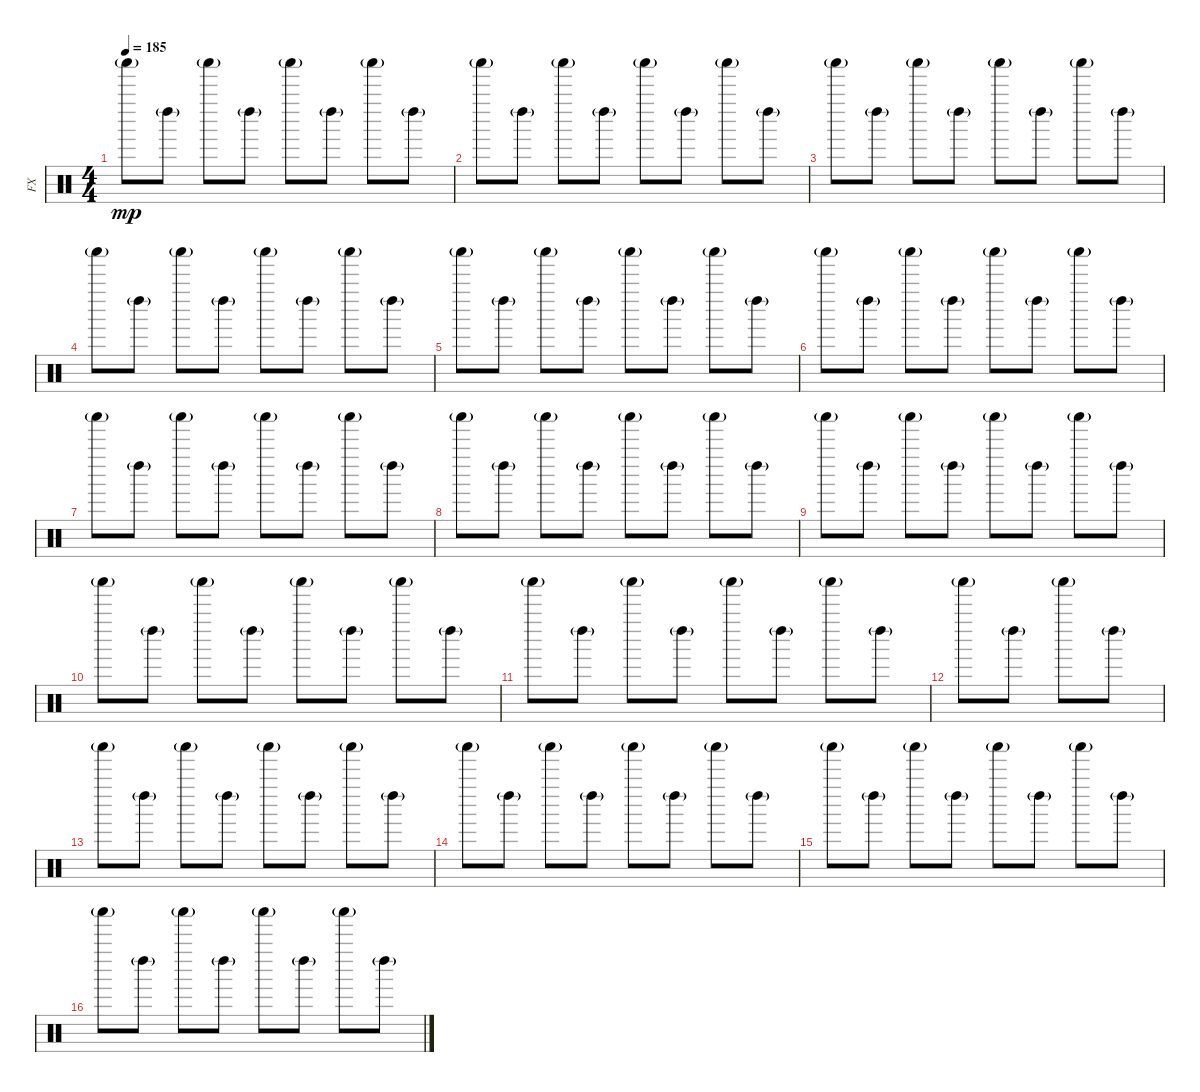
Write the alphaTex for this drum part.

\track ("FX" "FX") {instrument percussion}
\staff {score}
\articulation defaults
\ts (4 4)
\tempo 185
\clef neutral
\ks c "Shaker (hit)"{g}.8{dy mp} "Left Maraca (hit)"{g}.8 "Shaker (hit)"{g}.8 "Left Maraca (hit)"{g}.8 "Shaker (hit)"{g}.8 "Left Maraca (hit)"{g}.8 "Shaker (hit)"{g}.8 "Left Maraca (hit)"{g}.8
|
"Shaker (hit)"{g}.8 "Left Maraca (hit)"{g}.8 "Shaker (hit)"{g}.8 "Left Maraca (hit)"{g}.8 "Shaker (hit)"{g}.8 "Left Maraca (hit)"{g}.8 "Shaker (hit)"{g}.8 "Left Maraca (hit)"{g}.8 |
"Shaker (hit)"{g}.8 "Left Maraca (hit)"{g}.8 "Shaker (hit)"{g}.8 "Left Maraca (hit)"{g}.8 "Shaker (hit)"{g}.8 "Left Maraca (hit)"{g}.8 "Shaker (hit)"{g}.8 "Left Maraca (hit)"{g}.8 |
"Shaker (hit)"{g}.8 "Left Maraca (hit)"{g}.8 "Shaker (hit)"{g}.8 "Left Maraca (hit)"{g}.8 "Shaker (hit)"{g}.8 "Left Maraca (hit)"{g}.8 "Shaker (hit)"{g}.8 "Left Maraca (hit)"{g}.8 |
"Shaker (hit)"{g}.8 "Left Maraca (hit)"{g}.8 "Shaker (hit)"{g}.8 "Left Maraca (hit)"{g}.8 "Shaker (hit)"{g}.8 "Left Maraca (hit)"{g}.8 "Shaker (hit)"{g}.8 "Left Maraca (hit)"{g}.8 |
"Shaker (hit)"{g}.8 "Left Maraca (hit)"{g}.8 "Shaker (hit)"{g}.8 "Left Maraca (hit)"{g}.8 "Shaker (hit)"{g}.8 "Left Maraca (hit)"{g}.8 "Shaker (hit)"{g}.8 "Left Maraca (hit)"{g}.8 |
"Shaker (hit)"{g}.8 "Left Maraca (hit)"{g}.8 "Shaker (hit)"{g}.8 "Left Maraca (hit)"{g}.8 "Shaker (hit)"{g}.8 "Left Maraca (hit)"{g}.8 "Shaker (hit)"{g}.8 "Left Maraca (hit)"{g}.8 |
"Shaker (hit)"{g}.8 "Left Maraca (hit)"{g}.8 "Shaker (hit)"{g}.8 "Left Maraca (hit)"{g}.8 "Shaker (hit)"{g}.8 "Left Maraca (hit)"{g}.8 "Shaker (hit)"{g}.8 "Left Maraca (hit)"{g}.8 |
"Shaker (hit)"{g}.8 "Left Maraca (hit)"{g}.8 "Shaker (hit)"{g}.8 "Left Maraca (hit)"{g}.8 "Shaker (hit)"{g}.8 "Left Maraca (hit)"{g}.8 "Shaker (hit)"{g}.8 "Left Maraca (hit)"{g}.8 |
"Shaker (hit)"{g}.8 "Left Maraca (hit)"{g}.8 "Shaker (hit)"{g}.8 "Left Maraca (hit)"{g}.8 "Shaker (hit)"{g}.8 "Left Maraca (hit)"{g}.8 "Shaker (hit)"{g}.8 "Left Maraca (hit)"{g}.8 |
"Shaker (hit)"{g}.8 "Left Maraca (hit)"{g}.8 "Shaker (hit)"{g}.8 "Left Maraca (hit)"{g}.8 "Shaker (hit)"{g}.8 "Left Maraca (hit)"{g}.8 "Shaker (hit)"{g}.8 "Left Maraca (hit)"{g}.8 |
"Shaker (hit)"{g}.8 "Left Maraca (hit)"{g}.8 "Shaker (hit)"{g}.8 "Left Maraca (hit)"{g}.8 |
"Shaker (hit)"{g}.8 "Left Maraca (hit)"{g}.8 "Shaker (hit)"{g}.8 "Left Maraca (hit)"{g}.8 "Shaker (hit)"{g}.8 "Left Maraca (hit)"{g}.8 "Shaker (hit)"{g}.8 "Left Maraca (hit)"{g}.8 |
"Shaker (hit)"{g}.8 "Left Maraca (hit)"{g}.8 "Shaker (hit)"{g}.8 "Left Maraca (hit)"{g}.8 "Shaker (hit)"{g}.8 "Left Maraca (hit)"{g}.8 "Shaker (hit)"{g}.8 "Left Maraca (hit)"{g}.8 |
"Shaker (hit)"{g}.8 "Left Maraca (hit)"{g}.8 "Shaker (hit)"{g}.8 "Left Maraca (hit)"{g}.8 "Shaker (hit)"{g}.8 "Left Maraca (hit)"{g}.8 "Shaker (hit)"{g}.8 "Left Maraca (hit)"{g}.8 |
"Shaker (hit)"{g}.8 "Left Maraca (hit)"{g}.8 "Shaker (hit)"{g}.8 "Left Maraca (hit)"{g}.8 "Shaker (hit)"{g}.8 "Left Maraca (hit)"{g}.8 "Shaker (hit)"{g}.8 "Left Maraca (hit)"{g}.8
